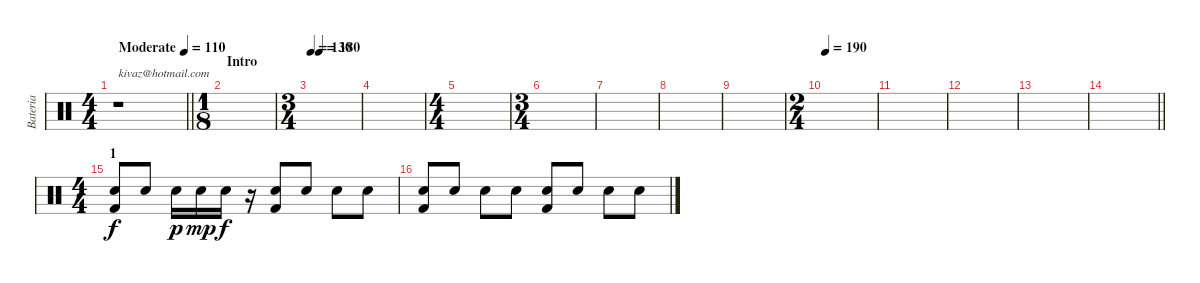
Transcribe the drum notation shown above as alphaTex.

\track ("Bateria" "Bateria") {instrument percussion}
\staff {score}
\articulation defaults
\ts (4 4)
\tempo (110 "Moderate")
\clef neutral
\barLineRight lightlight
\ks c
r.1{txt "kivaz@hotmail.com" dy f} |
\ts (1 8)
\section ("" "Intro")
|
\ts (3 4)
\tempo 110
\tempo (140 0.16666666666666666)
\tempo 130
\tempo (180 0.16666666666666666)
|
|
\ts (4 4)
|
\ts (3 4)
|
|
|
|
\ts (2 4)
\tempo 190
|
|
|
|
\barLineRight lightlight
|
\ts (4 4)
\section ("" "1")
("Electric Snare (hit)" "Kick (hit) 2").8 "Snare (hit)".8 "Electric Snare (hit)".16{dy p} "Electric Snare (hit)".16{dy mp} "Electric Snare (hit)".16{dy f} r.16 ("Electric Snare (hit)" "Kick (hit) 2").8 "Snare (hit)".8 "Electric Snare (hit)".8 "Snare (hit)".8 |
("Electric Snare (hit)" "Kick (hit) 2").8 "Electric Snare (hit)".8 "Electric Snare (hit)".8 "Snare (hit)".8 ("Electric Snare (hit)" "Kick (hit) 2").8 "Snare (hit)".8 "Electric Snare (hit)".8 "Electric Snare (hit)".8
